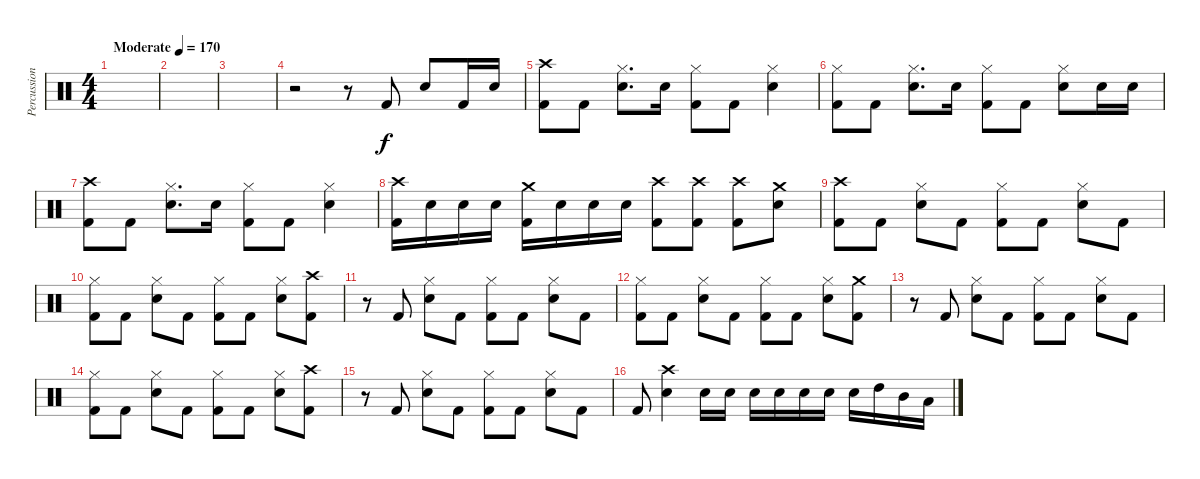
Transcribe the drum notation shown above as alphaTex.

\track ("Percussion" "Percussion") {instrument percussion}
\staff {score}
\articulation defaults
\ts (4 4)
\tempo (170 "Moderate")
\clef neutral
\ks c
|
|
|
r.2 r.8 "Kick (hit) 2".8 "Electric Snare (hit)".8 "Kick (hit) 2".16 "Electric Snare (hit)".16 |
("Crash high (hit)" "Kick (hit) 2").8 "Kick (hit) 2".8 ("Hi-Hat (closed)" "Electric Snare (hit)").8{d} "Electric Snare (hit)".16 ("Hi-Hat (closed)" "Kick (hit) 2").8 "Kick (hit) 2".8 ("Hi-Hat (closed)" "Electric Snare (hit)").4 |
("Hi-Hat (closed)" "Kick (hit) 2").8 "Kick (hit) 2".8 ("Hi-Hat (closed)" "Electric Snare (hit)").8{d} "Electric Snare (hit)".16 ("Hi-Hat (closed)" "Kick (hit) 2").8 "Kick (hit) 2".8 ("Hi-Hat (closed)" "Electric Snare (hit)").8 "Electric Snare (hit)".16 "Electric Snare (hit)".16 |
("Crash high (hit)" "Kick (hit) 2").8 "Kick (hit) 2".8 ("Hi-Hat (closed)" "Electric Snare (hit)").8{d} "Electric Snare (hit)".16 ("Hi-Hat (closed)" "Kick (hit) 2").8 "Kick (hit) 2".8 ("Hi-Hat (closed)" "Electric Snare (hit)").4 |
("Crash high (hit)" "Kick (hit) 2").16 "Electric Snare (hit)".16 "Electric Snare (hit)".16 "Electric Snare (hit)".16 ("Crash medium (hit)" "Kick (hit) 2").16 "Electric Snare (hit)".16 "Electric Snare (hit)".16 "Electric Snare (hit)".16 ("Crash high (hit)" "Kick (hit) 2").8 ("Crash high (hit)" "Kick (hit) 2").8 ("Crash high (hit)" "Kick (hit) 2").8 ("Crash medium (hit)" "Electric Snare (hit)").8 |
("Crash high (hit)" "Kick (hit) 2").8 "Kick (hit) 2".8 ("Hi-Hat (closed)" "Electric Snare (hit)").8 "Kick (hit) 2".8 ("Hi-Hat (closed)" "Kick (hit) 2").8 "Kick (hit) 2".8 ("Hi-Hat (closed)" "Electric Snare (hit)").8 "Kick (hit) 2".8 |
("Hi-Hat (closed)" "Kick (hit) 2").8 "Kick (hit) 2".8 ("Hi-Hat (closed)" "Electric Snare (hit)").8 "Kick (hit) 2".8 ("Hi-Hat (closed)" "Kick (hit) 2").8 "Kick (hit) 2".8 ("Hi-Hat (closed)" "Electric Snare (hit)").8 ("Crash high (hit)" "Kick (hit) 2").8 |
r.8 "Kick (hit) 2".8 ("Hi-Hat (closed)" "Electric Snare (hit)").8 "Kick (hit) 2".8 ("Hi-Hat (closed)" "Kick (hit) 2").8 "Kick (hit) 2".8 ("Hi-Hat (closed)" "Electric Snare (hit)").8 "Kick (hit) 2".8 |
("Hi-Hat (closed)" "Kick (hit) 2").8 "Kick (hit) 2".8 ("Hi-Hat (closed)" "Electric Snare (hit)").8 "Kick (hit) 2".8 ("Hi-Hat (closed)" "Kick (hit) 2").8 "Kick (hit) 2".8 ("Hi-Hat (closed)" "Electric Snare (hit)").8 ("Crash medium (hit)" "Kick (hit) 2").8 |
r.8 "Kick (hit) 2".8 ("Hi-Hat (closed)" "Electric Snare (hit)").8 "Kick (hit) 2".8 ("Hi-Hat (closed)" "Kick (hit) 2").8 "Kick (hit) 2".8 ("Hi-Hat (closed)" "Electric Snare (hit)").8 "Kick (hit) 2".8 |
("Hi-Hat (closed)" "Kick (hit) 2").8 "Kick (hit) 2".8 ("Hi-Hat (closed)" "Electric Snare (hit)").8 "Kick (hit) 2".8 ("Hi-Hat (closed)" "Kick (hit) 2").8 "Kick (hit) 2".8 ("Hi-Hat (closed)" "Electric Snare (hit)").8 ("Crash high (hit)" "Kick (hit) 2").8 |
r.8 "Kick (hit) 2".8 ("Hi-Hat (closed)" "Electric Snare (hit)").8 "Kick (hit) 2".8 ("Hi-Hat (closed)" "Kick (hit) 2").8 "Kick (hit) 2".8 ("Hi-Hat (closed)" "Electric Snare (hit)").8 "Kick (hit) 2".8 |
"Kick (hit) 2".8 ("Crash high (hit)" "Electric Snare (hit)").4 "Electric Snare (hit)".16 "Electric Snare (hit)".16 "Electric Snare (hit)".16 "Electric Snare (hit)".16 "Electric Snare (hit)".16 "Electric Snare (hit)".16 "Electric Snare (hit)".16 "High Tom (hit)".16 "Mid Tom (hit)".16 "Low Tom (hit)".16
